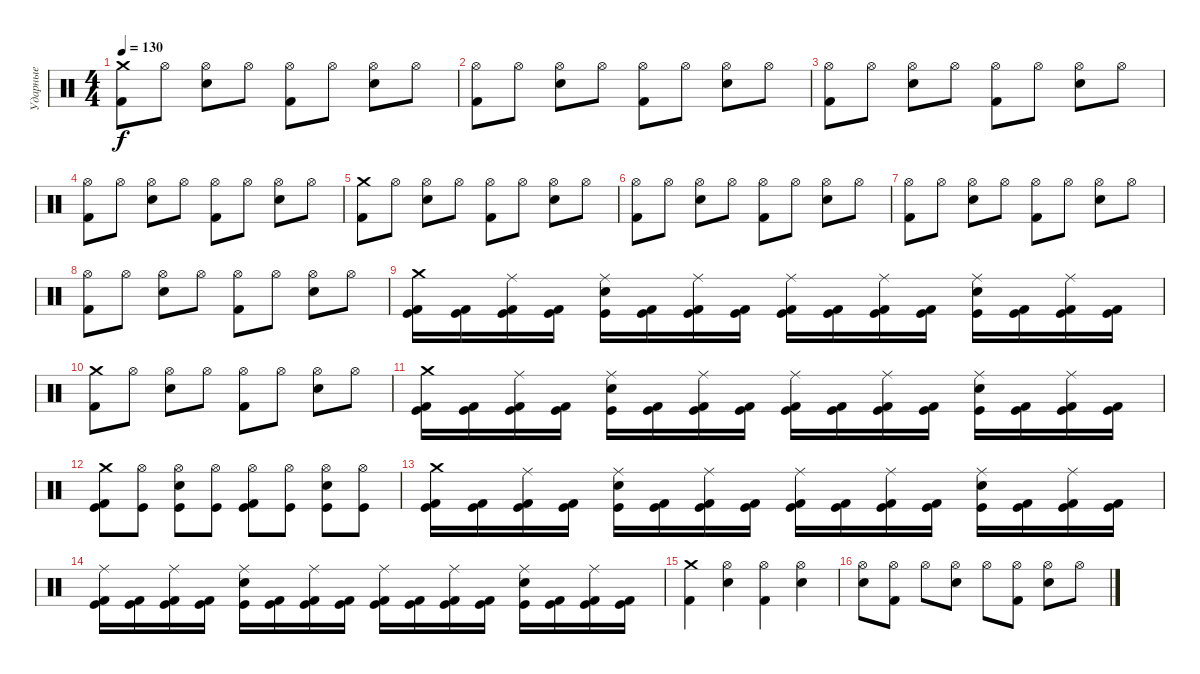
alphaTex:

\track ("Ударные" "Ударные") {instrument percussion}
\staff {score}
\articulation defaults
\ts (4 4)
\tempo 130
\clef neutral
\ks c
("Crash medium (hit)" "Kick (hit) 2").8{dy f} "Hi-Hat (open)".8 ("Hi-Hat (open)" "Electric Snare (hit)").8 "Hi-Hat (open)".8 ("Hi-Hat (open)" "Kick (hit) 2").8 "Hi-Hat (open)".8 ("Hi-Hat (open)" "Electric Snare (hit)").8 "Hi-Hat (open)".8 |
("Hi-Hat (open)" "Kick (hit) 2").8 "Hi-Hat (open)".8 ("Hi-Hat (open)" "Electric Snare (hit)").8 "Hi-Hat (open)".8 ("Hi-Hat (open)" "Kick (hit) 2").8 "Hi-Hat (open)".8 ("Hi-Hat (open)" "Electric Snare (hit)").8 "Hi-Hat (open)".8 |
("Hi-Hat (open)" "Kick (hit) 2").8 "Hi-Hat (open)".8 ("Hi-Hat (open)" "Electric Snare (hit)").8 "Hi-Hat (open)".8 ("Hi-Hat (open)" "Kick (hit) 2").8 "Hi-Hat (open)".8 ("Hi-Hat (open)" "Electric Snare (hit)").8 "Hi-Hat (open)".8 |
("Hi-Hat (open)" "Kick (hit) 2").8 "Hi-Hat (open)".8 ("Hi-Hat (open)" "Electric Snare (hit)").8 "Hi-Hat (open)".8 ("Hi-Hat (open)" "Kick (hit) 2").8 "Hi-Hat (open)".8 ("Hi-Hat (open)" "Electric Snare (hit)").8 "Hi-Hat (open)".8 |
("Crash medium (hit)" "Kick (hit) 2").8 "Hi-Hat (open)".8 ("Hi-Hat (open)" "Electric Snare (hit)").8 "Hi-Hat (open)".8 ("Hi-Hat (open)" "Kick (hit) 2").8 "Hi-Hat (open)".8 ("Hi-Hat (open)" "Electric Snare (hit)").8 "Hi-Hat (open)".8 |
("Hi-Hat (open)" "Kick (hit) 2").8 "Hi-Hat (open)".8 ("Hi-Hat (open)" "Electric Snare (hit)").8 "Hi-Hat (open)".8 ("Hi-Hat (open)" "Kick (hit) 2").8 "Hi-Hat (open)".8 ("Hi-Hat (open)" "Electric Snare (hit)").8 "Hi-Hat (open)".8 |
("Hi-Hat (open)" "Kick (hit) 2").8 "Hi-Hat (open)".8 ("Hi-Hat (open)" "Electric Snare (hit)").8 "Hi-Hat (open)".8 ("Hi-Hat (open)" "Kick (hit) 2").8 "Hi-Hat (open)".8 ("Hi-Hat (open)" "Electric Snare (hit)").8 "Hi-Hat (open)".8 |
("Hi-Hat (open)" "Kick (hit) 2").8 "Hi-Hat (open)".8 ("Hi-Hat (open)" "Electric Snare (hit)").8 "Hi-Hat (open)".8 ("Hi-Hat (open)" "Kick (hit) 2").8 "Hi-Hat (open)".8 ("Hi-Hat (open)" "Electric Snare (hit)").8 "Hi-Hat (open)".8 |
("Crash medium (hit)" "Kick (hit) 2" "Kick (hit)").16 ("Kick (hit) 2" "Kick (hit)").16 ("Ride (middle)" "Kick (hit) 2" "Kick (hit)").16 ("Kick (hit) 2" "Kick (hit)").16 ("Ride (middle)" "Electric Snare (hit)" "Kick (hit)").16 ("Kick (hit) 2" "Kick (hit)").16 ("Ride (middle)" "Kick (hit) 2" "Kick (hit)").16 ("Kick (hit) 2" "Kick (hit)").16 ("Ride (middle)" "Kick (hit) 2" "Kick (hit)").16 ("Kick (hit) 2" "Kick (hit)").16 ("Ride (middle)" "Kick (hit) 2" "Kick (hit)").16 ("Kick (hit) 2" "Kick (hit)").16 ("Ride (middle)" "Electric Snare (hit)" "Kick (hit)").16 ("Kick (hit) 2" "Kick (hit)").16 ("Ride (middle)" "Kick (hit) 2" "Kick (hit)").16 ("Kick (hit) 2" "Kick (hit)").16 |
("Crash medium (hit)" "Kick (hit) 2").8 "Hi-Hat (open)".8 ("Hi-Hat (open)" "Electric Snare (hit)").8 "Hi-Hat (open)".8 ("Hi-Hat (open)" "Kick (hit) 2").8 "Hi-Hat (open)".8 ("Hi-Hat (open)" "Electric Snare (hit)").8 "Hi-Hat (open)".8 |
("Crash medium (hit)" "Kick (hit) 2" "Kick (hit)").16 ("Kick (hit) 2" "Kick (hit)").16 ("Ride (middle)" "Kick (hit) 2" "Kick (hit)").16 ("Kick (hit) 2" "Kick (hit)").16 ("Ride (middle)" "Electric Snare (hit)" "Kick (hit)").16 ("Kick (hit) 2" "Kick (hit)").16 ("Ride (middle)" "Kick (hit) 2" "Kick (hit)").16 ("Kick (hit) 2" "Kick (hit)").16 ("Ride (middle)" "Kick (hit) 2" "Kick (hit)").16 ("Kick (hit) 2" "Kick (hit)").16 ("Ride (middle)" "Kick (hit) 2" "Kick (hit)").16 ("Kick (hit) 2" "Kick (hit)").16 ("Ride (middle)" "Electric Snare (hit)" "Kick (hit)").16 ("Kick (hit) 2" "Kick (hit)").16 ("Ride (middle)" "Kick (hit) 2" "Kick (hit)").16 ("Kick (hit) 2" "Kick (hit)").16 |
("Crash medium (hit)" "Kick (hit) 2" "Kick (hit)").8 ("Hi-Hat (open)" "Kick (hit)").8 ("Hi-Hat (open)" "Electric Snare (hit)" "Kick (hit)").8 ("Hi-Hat (open)" "Kick (hit)").8 ("Hi-Hat (open)" "Kick (hit) 2" "Kick (hit)").8 ("Hi-Hat (open)" "Kick (hit)").8 ("Hi-Hat (open)" "Electric Snare (hit)" "Kick (hit)").8 ("Hi-Hat (open)" "Kick (hit)").8 |
("Crash medium (hit)" "Kick (hit) 2" "Kick (hit)").16 ("Kick (hit) 2" "Kick (hit)").16 ("Ride (middle)" "Kick (hit) 2" "Kick (hit)").16 ("Kick (hit) 2" "Kick (hit)").16 ("Ride (middle)" "Electric Snare (hit)" "Kick (hit)").16 ("Kick (hit) 2" "Kick (hit)").16 ("Ride (middle)" "Kick (hit) 2" "Kick (hit)").16 ("Kick (hit) 2" "Kick (hit)").16 ("Ride (middle)" "Kick (hit) 2" "Kick (hit)").16 ("Kick (hit) 2" "Kick (hit)").16 ("Ride (middle)" "Kick (hit) 2" "Kick (hit)").16 ("Kick (hit) 2" "Kick (hit)").16 ("Ride (middle)" "Electric Snare (hit)" "Kick (hit)").16 ("Kick (hit) 2" "Kick (hit)").16 ("Ride (middle)" "Kick (hit) 2" "Kick (hit)").16 ("Kick (hit) 2" "Kick (hit)").16 |
("Ride (middle)" "Kick (hit) 2" "Kick (hit)").16 ("Kick (hit) 2" "Kick (hit)").16 ("Ride (middle)" "Kick (hit) 2" "Kick (hit)").16 ("Kick (hit) 2" "Kick (hit)").16 ("Ride (middle)" "Electric Snare (hit)" "Kick (hit)").16 ("Kick (hit) 2" "Kick (hit)").16 ("Ride (middle)" "Kick (hit) 2" "Kick (hit)").16 ("Kick (hit) 2" "Kick (hit)").16 ("Ride (middle)" "Kick (hit) 2" "Kick (hit)").16 ("Kick (hit) 2" "Kick (hit)").16 ("Ride (middle)" "Kick (hit) 2" "Kick (hit)").16 ("Kick (hit) 2" "Kick (hit)").16 ("Ride (middle)" "Electric Snare (hit)" "Kick (hit)").16 ("Kick (hit) 2" "Kick (hit)").16 ("Ride (middle)" "Kick (hit) 2" "Kick (hit)").16 ("Kick (hit) 2" "Kick (hit)").16 |
("Crash medium (hit)" "Kick (hit) 2").4 ("Hi-Hat (open)" "Electric Snare (hit)").4 ("Hi-Hat (open)" "Kick (hit) 2").4 ("Hi-Hat (open)" "Electric Snare (hit)").4 |
("Hi-Hat (open)" "Electric Snare (hit)").8 ("Hi-Hat (open)" "Kick (hit) 2").8 "Hi-Hat (open)".8 ("Hi-Hat (open)" "Electric Snare (hit)").8 "Hi-Hat (open)".8 ("Hi-Hat (open)" "Kick (hit) 2").8 ("Hi-Hat (open)" "Electric Snare (hit)").8 "Hi-Hat (open)".8
